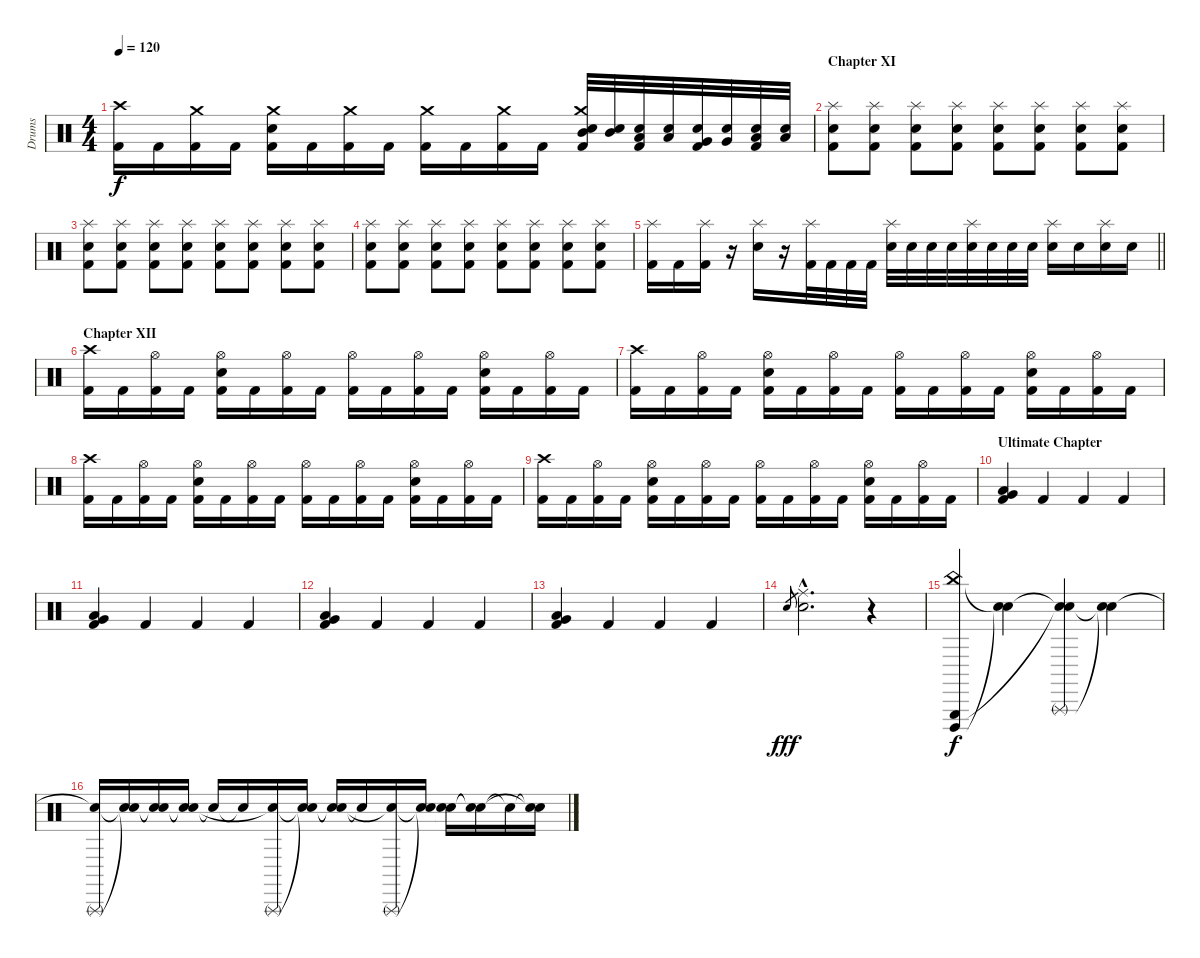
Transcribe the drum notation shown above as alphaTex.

\track ("Drums" "Drums") {instrument percussion}
\staff {score}
\articulation defaults
\ts (4 4)
\tempo 120
\clef neutral
\ks c
("Crash high (hit)" "Kick (hit) 2").16{dy f} "Kick (hit) 2".16 ("Crash medium (hit)" "Kick (hit) 2").16 "Kick (hit) 2".16 ("Crash medium (hit)" "Electric Snare (hit)" "Kick (hit) 2").16 "Kick (hit) 2".16 ("Crash medium (hit)" "Kick (hit) 2").16 "Kick (hit) 2".16 ("Crash medium (hit)" "Kick (hit) 2").16 "Kick (hit) 2".16 ("Crash medium (hit)" "Kick (hit) 2").16 "Kick (hit) 2".16 ("Crash medium (hit)" "Mid Tom (hit)" "Electric Snare (hit)" "Kick (hit) 2").32 ("Mid Tom (hit)" "Electric Snare (hit)").32 ("Low Tom (hit)" "Electric Snare (hit)" "Kick (hit) 2").32 ("Low Tom (hit)" "Electric Snare (hit)").32 ("Very Low Tom (hit)" "Electric Snare (hit)" "Kick (hit) 2").32 ("Very Low Tom (hit)" "Electric Snare (hit)").32 ("Low Floor Tom (hit)" "Electric Snare (hit)" "Kick (hit) 2").32 ("Low Floor Tom (hit)" "Electric Snare (hit)").32 |
\section ("" "Chapter XI")
("Electric Snare (hit)" "Splash (hit)" "Kick (hit) 2").8 ("Electric Snare (hit)" "Splash (hit)" "Kick (hit) 2").8 ("Electric Snare (hit)" "Splash (hit)" "Kick (hit) 2").8 ("Electric Snare (hit)" "Splash (hit)" "Kick (hit) 2").8 ("Electric Snare (hit)" "Splash (hit)" "Kick (hit) 2").8 ("Electric Snare (hit)" "Splash (hit)" "Kick (hit) 2").8 ("Electric Snare (hit)" "Splash (hit)" "Kick (hit) 2").8 ("Electric Snare (hit)" "Splash (hit)" "Kick (hit) 2").8 |
("Electric Snare (hit)" "Splash (hit)" "Kick (hit) 2").8 ("Electric Snare (hit)" "Splash (hit)" "Kick (hit) 2").8 ("Electric Snare (hit)" "Splash (hit)" "Kick (hit) 2").8 ("Electric Snare (hit)" "Splash (hit)" "Kick (hit) 2").8 ("Electric Snare (hit)" "Splash (hit)" "Kick (hit) 2").8 ("Electric Snare (hit)" "Splash (hit)" "Kick (hit) 2").8 ("Electric Snare (hit)" "Splash (hit)" "Kick (hit) 2").8 ("Electric Snare (hit)" "Splash (hit)" "Kick (hit) 2").8 |
("Electric Snare (hit)" "Splash (hit)" "Kick (hit) 2").8 ("Electric Snare (hit)" "Splash (hit)" "Kick (hit) 2").8 ("Electric Snare (hit)" "Splash (hit)" "Kick (hit) 2").8 ("Electric Snare (hit)" "Splash (hit)" "Kick (hit) 2").8 ("Electric Snare (hit)" "Splash (hit)" "Kick (hit) 2").8 ("Electric Snare (hit)" "Splash (hit)" "Kick (hit) 2").8 ("Electric Snare (hit)" "Splash (hit)" "Kick (hit) 2").8 ("Electric Snare (hit)" "Splash (hit)" "Kick (hit) 2").8 |
\barLineRight lightlight
("Kick (hit) 2" "Splash (hit)").16 "Kick (hit) 2".16 ("Kick (hit) 2" "Splash (hit)").16 r.16 ("Electric Snare (hit)" "Splash (hit)").16 r.16 ("Kick (hit) 2" "Splash (hit)").32 "Kick (hit) 2".32 "Kick (hit) 2".32 "Kick (hit) 2".32 ("Electric Snare (hit)" "Splash (hit)").32 "Electric Snare (hit)".32 "Electric Snare (hit)".32 "Electric Snare (hit)".32 ("Electric Snare (hit)" "Splash (hit)").32 "Electric Snare (hit)".32 "Electric Snare (hit)".32 "Electric Snare (hit)".32 ("Electric Snare (hit)" "Splash (hit)").16 "Electric Snare (hit)".16 ("Electric Snare (hit)" "Splash (hit)").16 "Electric Snare (hit)".16 |
\section ("" "Chapter XII")
("Crash high (hit)" "Kick (hit) 2").16 "Kick (hit) 2".16 ("Hi-Hat (open)" "Kick (hit) 2").16 "Kick (hit) 2".16 ("Hi-Hat (open)" "Electric Snare (hit)" "Kick (hit) 2").16 "Kick (hit) 2".16 ("Hi-Hat (open)" "Kick (hit) 2").16 "Kick (hit) 2".16 ("Hi-Hat (open)" "Kick (hit) 2").16 "Kick (hit) 2".16 ("Hi-Hat (open)" "Kick (hit) 2").16 "Kick (hit) 2".16 ("Hi-Hat (open)" "Electric Snare (hit)" "Kick (hit) 2").16 "Kick (hit) 2".16 ("Hi-Hat (open)" "Kick (hit) 2").16 "Kick (hit) 2".16 |
("Crash high (hit)" "Kick (hit) 2").16 "Kick (hit) 2".16 ("Hi-Hat (open)" "Kick (hit) 2").16 "Kick (hit) 2".16 ("Hi-Hat (open)" "Electric Snare (hit)" "Kick (hit) 2").16 "Kick (hit) 2".16 ("Hi-Hat (open)" "Kick (hit) 2").16 "Kick (hit) 2".16 ("Hi-Hat (open)" "Kick (hit) 2").16 "Kick (hit) 2".16 ("Hi-Hat (open)" "Kick (hit) 2").16 "Kick (hit) 2".16 ("Hi-Hat (open)" "Electric Snare (hit)" "Kick (hit) 2").16 "Kick (hit) 2".16 ("Hi-Hat (open)" "Kick (hit) 2").16 "Kick (hit) 2".16 |
("Crash high (hit)" "Kick (hit) 2").16 "Kick (hit) 2".16 ("Hi-Hat (open)" "Kick (hit) 2").16 "Kick (hit) 2".16 ("Hi-Hat (open)" "Electric Snare (hit)" "Kick (hit) 2").16 "Kick (hit) 2".16 ("Hi-Hat (open)" "Kick (hit) 2").16 "Kick (hit) 2".16 ("Hi-Hat (open)" "Kick (hit) 2").16 "Kick (hit) 2".16 ("Hi-Hat (open)" "Kick (hit) 2").16 "Kick (hit) 2".16 ("Hi-Hat (open)" "Electric Snare (hit)" "Kick (hit) 2").16 "Kick (hit) 2".16 ("Hi-Hat (open)" "Kick (hit) 2").16 "Kick (hit) 2".16 |
("Crash high (hit)" "Kick (hit) 2").16 "Kick (hit) 2".16 ("Hi-Hat (open)" "Kick (hit) 2").16 "Kick (hit) 2".16 ("Hi-Hat (open)" "Electric Snare (hit)" "Kick (hit) 2").16 "Kick (hit) 2".16 ("Hi-Hat (open)" "Kick (hit) 2").16 "Kick (hit) 2".16 ("Hi-Hat (open)" "Kick (hit) 2").16 "Kick (hit) 2".16 ("Hi-Hat (open)" "Kick (hit) 2").16 "Kick (hit) 2".16 ("Hi-Hat (open)" "Electric Snare (hit)" "Kick (hit) 2").16 "Kick (hit) 2".16 ("Hi-Hat (open)" "Kick (hit) 2").16 "Kick (hit) 2".16 |
\section ("" "Ultimate Chapter")
("Kick (hit) 2" "Very Low Tom (hit)" "Low Tom (hit)").4 "Kick (hit) 2".4 "Kick (hit) 2".4 "Kick (hit) 2".4 |
("Kick (hit) 2" "Very Low Tom (hit)" "Low Tom (hit)").4 "Kick (hit) 2".4 "Kick (hit) 2".4 "Kick (hit) 2".4 |
("Kick (hit) 2" "Very Low Tom (hit)" "Low Tom (hit)").4 "Kick (hit) 2".4 "Kick (hit) 2".4 "Kick (hit) 2".4 |
("Kick (hit) 2" "Very Low Tom (hit)" "Low Tom (hit)").4 "Kick (hit) 2".4 "Kick (hit) 2".4 "Kick (hit) 2".4 |
"Electric Snare (hit)".8{gr dy fff} ("Ride (middle)"{hac} "Electric Snare (hit)"{hac}).2{d volume 0} r.4{volume 13} |
("Cuica (open)" "China (hit)" "Triangle (hit)").4{dy f volume 13} ("Snare (hit)"{t} "Snare (hit)"{t}).4{volume 13} ("Triangle (rnute)" "Snare (hit)"{t} "Snare (hit)"{t}).4{volume 13} ("Snare (hit)"{t} "Snare (hit)"{t}).4{volume 13} |
("Triangle (rnute)" "Snare (hit)"{t}).16{volume 13} ("Snare (hit)"{t} "Snare (hit)"{t}).16{volume 0} ("Snare (hit)"{t} "Snare (hit)"{t}).16 ("Snare (hit)"{t} "Snare (hit)"{t}).16 "Snare (hit)"{t}.16 "Snare (hit)"{t}.16 ("Triangle (rnute)" "Snare (hit)"{t}).16 ("Snare (hit)"{t} "Snare (hit)"{t}).16 ("Snare (hit)"{t} "Snare (hit)"{t}).16 "Snare (hit)"{t}.16 ("Triangle (rnute)" "Snare (hit)"{t}).16 ("Snare (hit)"{t} "Snare (hit)"{t}).16 ("Snare (hit)"{t} "Snare (hit)"{t}).16 ("Snare (hit)"{t} "Snare (hit)"{t}).16 "Snare (hit)"{t}.16 ("Snare (hit)"{t} "Snare (hit)"{t}).16
